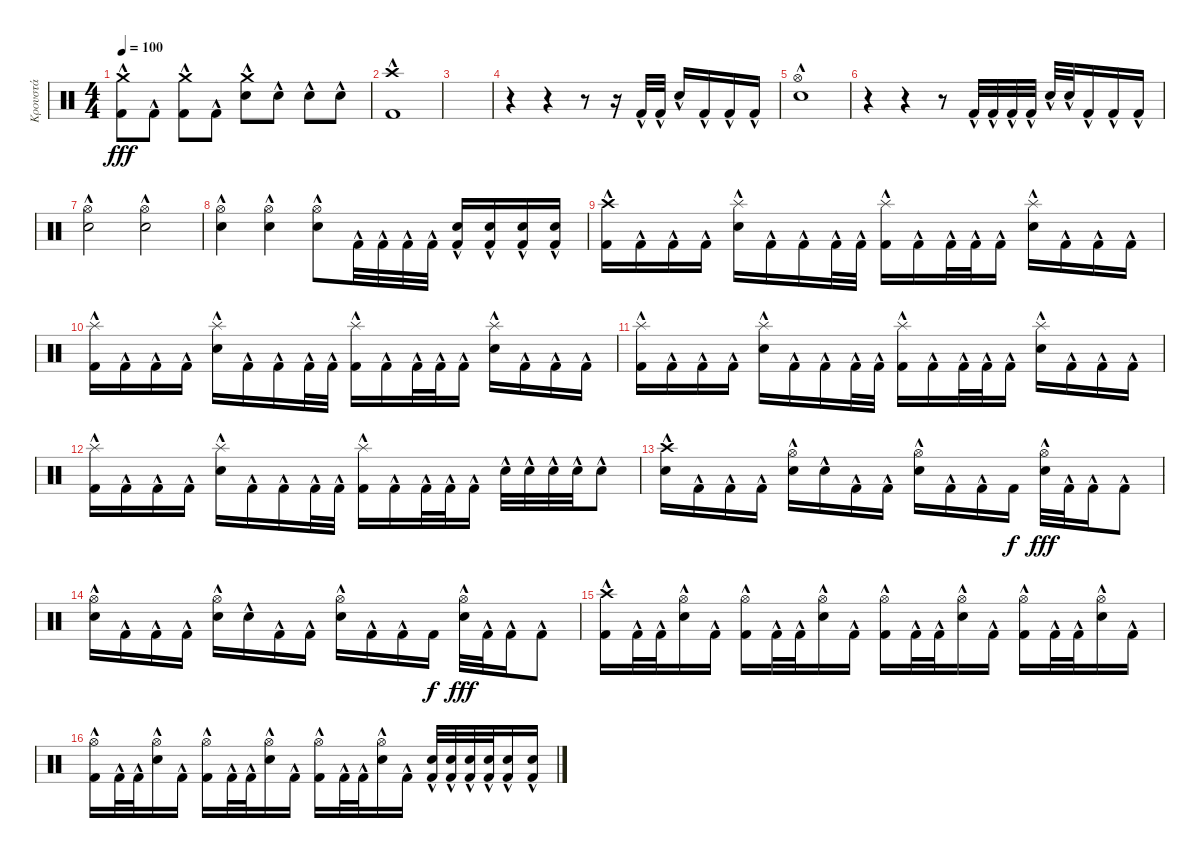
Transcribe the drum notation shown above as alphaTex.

\track ("Κρουστά" "Κρουστά") {instrument percussion}
\staff {score}
\articulation defaults
\ts (4 4)
\tempo 100
\clef neutral
\ks c
("Kick (hit) 2"{hac} "Crash medium (hit)").8{dy fff} "Kick (hit) 2"{hac}.8 ("Kick (hit) 2"{hac} "Crash medium (hit)").8 "Kick (hit) 2"{hac}.8 ("Electric Snare (hit)"{hac} "Crash medium (hit)").8 "Electric Snare (hit)"{hac}.8 "Electric Snare (hit)"{hac}.8 "Electric Snare (hit)"{hac}.8 |
("Kick (hit) 2"{hac} "Crash high (hit)").1 |
|
r.4 r.4 r.8 r.16 "Kick (hit) 2"{hac}.32 "Kick (hit) 2"{hac}.32 "Electric Snare (hit)"{hac}.16 "Kick (hit) 2"{hac}.16 "Kick (hit) 2"{hac}.16 "Kick (hit) 2"{hac}.16 |
("Hi-Hat (open)" "Electric Snare (hit)"{hac}).1 |
r.4 r.4 r.8 "Kick (hit) 2"{hac}.32 "Kick (hit) 2"{hac}.32 "Kick (hit) 2"{hac}.32 "Kick (hit) 2"{hac}.32 "Electric Snare (hit)"{hac}.32 "Electric Snare (hit)"{hac}.32 "Kick (hit) 2"{hac}.16 "Kick (hit) 2"{hac}.16 "Kick (hit) 2"{hac}.16 |
("Hi-Hat (open)" "Electric Snare (hit)"{hac}).2 ("Hi-Hat (open)" "Electric Snare (hit)"{hac}).2 |
("Hi-Hat (open)" "Electric Snare (hit)"{hac}).4 ("Hi-Hat (open)" "Electric Snare (hit)"{hac}).4 ("Hi-Hat (open)" "Electric Snare (hit)"{hac}).8 "Kick (hit) 2"{hac}.32 "Kick (hit) 2"{hac}.32 "Kick (hit) 2"{hac}.32 "Kick (hit) 2"{hac}.32 ("Kick (hit) 2"{hac} "Electric Snare (hit)"{hac}).16 ("Kick (hit) 2"{hac} "Electric Snare (hit)"{hac}).16 ("Kick (hit) 2"{hac} "Electric Snare (hit)"{hac}).16 ("Kick (hit) 2"{hac} "Electric Snare (hit)"{hac}).16 |
("Kick (hit) 2"{hac} "Crash high (hit)").16 "Kick (hit) 2"{hac}.16 "Kick (hit) 2"{hac}.16 "Kick (hit) 2"{hac}.16 ("Electric Snare (hit)"{hac} "Splash (hit)").16 "Kick (hit) 2"{hac}.16 "Kick (hit) 2"{hac}.16 "Kick (hit) 2"{hac}.32 "Kick (hit) 2"{hac}.32 ("Kick (hit) 2"{hac} "Splash (hit)").16 "Kick (hit) 2"{hac}.16 "Kick (hit) 2"{hac}.32 "Kick (hit) 2"{hac}.32 "Kick (hit) 2"{hac}.16 ("Electric Snare (hit)"{hac} "Splash (hit)").16 "Kick (hit) 2"{hac}.16 "Kick (hit) 2"{hac}.16 "Kick (hit) 2"{hac}.16 |
("Kick (hit) 2"{hac} "Splash (hit)").16 "Kick (hit) 2"{hac}.16 "Kick (hit) 2"{hac}.16 "Kick (hit) 2"{hac}.16 ("Electric Snare (hit)"{hac} "Splash (hit)").16 "Kick (hit) 2"{hac}.16 "Kick (hit) 2"{hac}.16 "Kick (hit) 2"{hac}.32 "Kick (hit) 2"{hac}.32 ("Kick (hit) 2"{hac} "Splash (hit)").16 "Kick (hit) 2"{hac}.16 "Kick (hit) 2"{hac}.32 "Kick (hit) 2"{hac}.32 "Kick (hit) 2"{hac}.16 ("Electric Snare (hit)"{hac} "Splash (hit)").16 "Kick (hit) 2"{hac}.16 "Kick (hit) 2"{hac}.16 "Kick (hit) 2"{hac}.16 |
("Kick (hit) 2"{hac} "Splash (hit)").16 "Kick (hit) 2"{hac}.16 "Kick (hit) 2"{hac}.16 "Kick (hit) 2"{hac}.16 ("Electric Snare (hit)"{hac} "Splash (hit)").16 "Kick (hit) 2"{hac}.16 "Kick (hit) 2"{hac}.16 "Kick (hit) 2"{hac}.32 "Kick (hit) 2"{hac}.32 ("Kick (hit) 2"{hac} "Splash (hit)").16 "Kick (hit) 2"{hac}.16 "Kick (hit) 2"{hac}.32 "Kick (hit) 2"{hac}.32 "Kick (hit) 2"{hac}.16 ("Electric Snare (hit)"{hac} "Splash (hit)").16 "Kick (hit) 2"{hac}.16 "Kick (hit) 2"{hac}.16 "Kick (hit) 2"{hac}.16 |
("Kick (hit) 2"{hac} "Splash (hit)").16 "Kick (hit) 2"{hac}.16 "Kick (hit) 2"{hac}.16 "Kick (hit) 2"{hac}.16 ("Electric Snare (hit)"{hac} "Splash (hit)").16 "Kick (hit) 2"{hac}.16 "Kick (hit) 2"{hac}.16 "Kick (hit) 2"{hac}.32 "Kick (hit) 2"{hac}.32 ("Kick (hit) 2"{hac} "Splash (hit)").16 "Kick (hit) 2"{hac}.16 "Kick (hit) 2"{hac}.32 "Kick (hit) 2"{hac}.32 "Kick (hit) 2"{hac}.16 "Electric Snare (hit)"{hac}.32 "Electric Snare (hit)"{hac}.32 "Electric Snare (hit)"{hac}.32 "Electric Snare (hit)"{hac}.32 "Electric Snare (hit)"{hac}.8 |
("Electric Snare (hit)"{hac} "Crash high (hit)").16 "Kick (hit) 2"{hac}.16 "Kick (hit) 2"{hac}.16 "Kick (hit) 2"{hac}.16 ("Electric Snare (hit)"{hac} "Hi-Hat (open)").16 "Electric Snare (hit)"{hac}.16 "Kick (hit) 2"{hac}.16 "Kick (hit) 2"{hac}.16 ("Electric Snare (hit)"{hac} "Hi-Hat (open)").16 "Kick (hit) 2"{hac}.16 "Kick (hit) 2"{hac}.16 "Kick (hit) 2".16{dy f} ("Electric Snare (hit)"{hac} "Hi-Hat (open)").32{dy fff} "Kick (hit) 2"{hac}.32 "Kick (hit) 2"{hac}.16 "Kick (hit) 2"{hac}.8 |
("Electric Snare (hit)"{hac} "Hi-Hat (open)").16 "Kick (hit) 2"{hac}.16 "Kick (hit) 2"{hac}.16 "Kick (hit) 2"{hac}.16 ("Electric Snare (hit)"{hac} "Hi-Hat (open)").16 "Electric Snare (hit)"{hac}.16 "Kick (hit) 2"{hac}.16 "Kick (hit) 2"{hac}.16 ("Electric Snare (hit)"{hac} "Hi-Hat (open)").16 "Kick (hit) 2"{hac}.16 "Kick (hit) 2"{hac}.16 "Kick (hit) 2".16{dy f} ("Electric Snare (hit)"{hac} "Hi-Hat (open)").32{dy fff} "Kick (hit) 2"{hac}.32 "Kick (hit) 2"{hac}.16 "Kick (hit) 2"{hac}.8 |
("Kick (hit) 2"{hac} "Crash high (hit)").16 "Kick (hit) 2"{hac}.32 "Kick (hit) 2"{hac}.32 ("Electric Snare (hit)"{hac} "Hi-Hat (open)").16 "Kick (hit) 2"{hac}.16 ("Kick (hit) 2"{hac} "Hi-Hat (open)").16 "Kick (hit) 2"{hac}.32 "Kick (hit) 2"{hac}.32 ("Electric Snare (hit)"{hac} "Hi-Hat (open)").16 "Kick (hit) 2"{hac}.16 ("Kick (hit) 2"{hac} "Hi-Hat (open)").16 "Kick (hit) 2"{hac}.32 "Kick (hit) 2"{hac}.32 ("Electric Snare (hit)"{hac} "Hi-Hat (open)").16 "Kick (hit) 2"{hac}.16 ("Kick (hit) 2"{hac} "Hi-Hat (open)").16 "Kick (hit) 2"{hac}.32 "Kick (hit) 2"{hac}.32 ("Electric Snare (hit)"{hac} "Hi-Hat (open)").16 "Kick (hit) 2"{hac}.16 |
("Kick (hit) 2"{hac} "Hi-Hat (open)").16 "Kick (hit) 2"{hac}.32 "Kick (hit) 2"{hac}.32 ("Electric Snare (hit)"{hac} "Hi-Hat (open)").16 "Kick (hit) 2"{hac}.16 ("Kick (hit) 2"{hac} "Hi-Hat (open)").16 "Kick (hit) 2"{hac}.32 "Kick (hit) 2"{hac}.32 ("Electric Snare (hit)"{hac} "Hi-Hat (open)").16 "Kick (hit) 2"{hac}.16 ("Kick (hit) 2"{hac} "Hi-Hat (open)").16 "Kick (hit) 2"{hac}.32 "Kick (hit) 2"{hac}.32 ("Electric Snare (hit)"{hac} "Hi-Hat (open)").16 "Kick (hit) 2"{hac}.16 ("Electric Snare (hit)"{hac} "Kick (hit) 2"{hac}).32 ("Electric Snare (hit)"{hac} "Kick (hit) 2"{hac}).32 ("Electric Snare (hit)"{hac} "Kick (hit) 2"{hac}).32 ("Electric Snare (hit)"{hac} "Kick (hit) 2"{hac}).32 ("Electric Snare (hit)"{hac} "Kick (hit) 2"{hac}).16 ("Electric Snare (hit)"{hac} "Kick (hit) 2"{hac}).16
